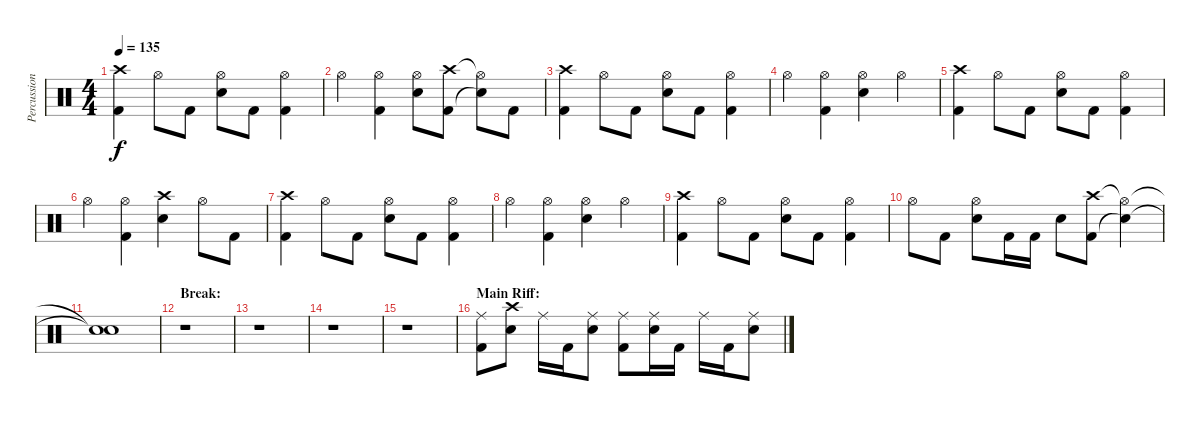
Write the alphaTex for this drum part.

\track ("Percussion" "Percussion") {instrument percussion}
\staff {score}
\articulation defaults
\ts (4 4)
\tempo 135
\clef neutral
\ks c
("Crash high (hit)" "Kick (hit) 2").4{dy f} "Hi-Hat (open)".8 "Kick (hit) 2".8 ("Hi-Hat (open)" "Electric Snare (hit)").8 "Kick (hit) 2".8 ("Hi-Hat (open)" "Kick (hit) 2").4 |
"Hi-Hat (open)".4 ("Hi-Hat (open)" "Kick (hit) 2").4 ("Hi-Hat (open)" "Electric Snare (hit)").8 ("Crash high (hit)" "Kick (hit) 2").8 ("Hi-Hat (open)"{t} "Snare (hit)"{t}).8 "Kick (hit) 2".8 |
("Crash high (hit)" "Kick (hit) 2").4 "Hi-Hat (open)".8 "Kick (hit) 2".8 ("Hi-Hat (open)" "Electric Snare (hit)").8 "Kick (hit) 2".8 ("Hi-Hat (open)" "Kick (hit) 2").4 |
"Hi-Hat (open)".4 ("Hi-Hat (open)" "Kick (hit) 2").4 ("Hi-Hat (open)" "Electric Snare (hit)").4 "Hi-Hat (open)".4 |
("Crash high (hit)" "Kick (hit) 2").4 "Hi-Hat (open)".8 "Kick (hit) 2".8 ("Hi-Hat (open)" "Electric Snare (hit)").8 "Kick (hit) 2".8 ("Hi-Hat (open)" "Kick (hit) 2").4 |
"Hi-Hat (open)".4 ("Hi-Hat (open)" "Kick (hit) 2").4 ("Crash high (hit)" "Electric Snare (hit)").4 "Hi-Hat (open)".8 "Kick (hit) 2".8 |
("Crash high (hit)" "Kick (hit) 2").4 "Hi-Hat (open)".8 "Kick (hit) 2".8 ("Hi-Hat (open)" "Electric Snare (hit)").8 "Kick (hit) 2".8 ("Hi-Hat (open)" "Kick (hit) 2").4 |
"Hi-Hat (open)".4 ("Hi-Hat (open)" "Kick (hit) 2").4 ("Hi-Hat (open)" "Electric Snare (hit)").4 "Hi-Hat (open)".4 |
("Crash high (hit)" "Kick (hit) 2").4 "Hi-Hat (open)".8 "Kick (hit) 2".8 ("Hi-Hat (open)" "Electric Snare (hit)").8 "Kick (hit) 2".8 ("Hi-Hat (open)" "Kick (hit) 2").4 |
"Hi-Hat (open)".8 "Kick (hit) 2".8 ("Hi-Hat (open)" "Electric Snare (hit)").8 "Kick (hit) 2".16 "Kick (hit) 2".16 "Electric Snare (hit)".8 ("Crash high (hit)" "Kick (hit) 2").8 ("Hi-Hat (open)"{t} "Snare (hit)"{t}).4 |
("Snare (hit)"{t} "Snare (hit)"{t}).1 |
\section ("" "Break:")
r.1 |
r.1 |
r.1 |
r.1 |
\section ("" "Main Riff:")
("Ride (middle)" "Kick (hit) 2").8 ("Crash high (hit)" "Electric Snare (hit)").8 "Ride (middle)".16 "Kick (hit) 2".16 ("Ride (middle)" "Electric Snare (hit)").8 ("Ride (middle)" "Kick (hit) 2").8 ("Ride (middle)" "Electric Snare (hit)").16 "Kick (hit) 2".16 "Ride (middle)".16 "Kick (hit) 2".16 ("Ride (middle)" "Electric Snare (hit)").8
